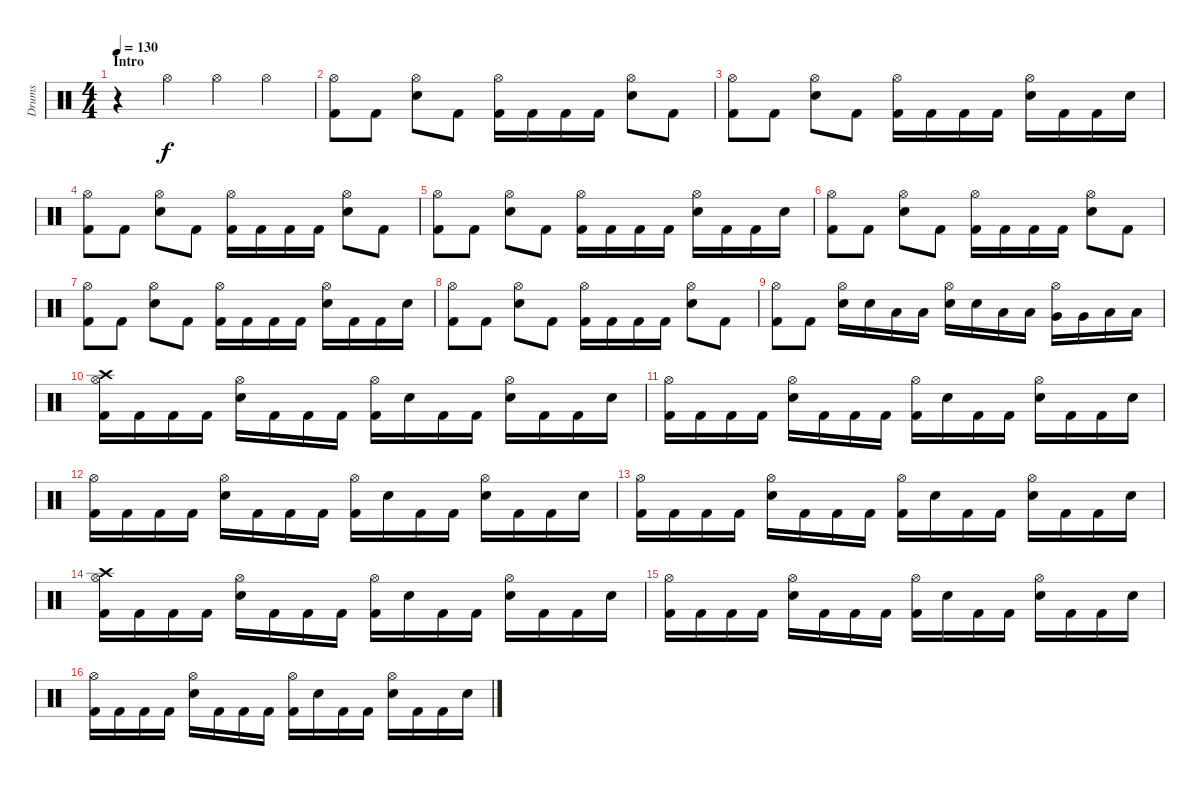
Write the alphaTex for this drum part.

\track ("Drums" "Drums") {instrument percussion}
\staff {score}
\articulation defaults
\ts (4 4)
\section ("" "Intro")
\tempo 130
\clef neutral
\ks c
r.4{dy f} "Hi-Hat (open)".4 "Hi-Hat (open)".4 "Hi-Hat (open)".4 |
("Hi-Hat (open)" "Kick (hit) 2").8 "Kick (hit) 2".8 ("Hi-Hat (open)" "Electric Snare (hit)").8 "Kick (hit) 2".8 ("Hi-Hat (open)" "Kick (hit) 2").16 "Kick (hit) 2".16 "Kick (hit) 2".16 "Kick (hit) 2".16 ("Hi-Hat (open)" "Electric Snare (hit)").8 "Kick (hit) 2".8 |
("Hi-Hat (open)" "Kick (hit) 2").8 "Kick (hit) 2".8 ("Hi-Hat (open)" "Electric Snare (hit)").8 "Kick (hit) 2".8 ("Hi-Hat (open)" "Kick (hit) 2").16 "Kick (hit) 2".16 "Kick (hit) 2".16 "Kick (hit) 2".16 ("Hi-Hat (open)" "Electric Snare (hit)").16 "Kick (hit) 2".16 "Kick (hit) 2".16 "Electric Snare (hit)".16 |
("Hi-Hat (open)" "Kick (hit) 2").8 "Kick (hit) 2".8 ("Hi-Hat (open)" "Electric Snare (hit)").8 "Kick (hit) 2".8 ("Hi-Hat (open)" "Kick (hit) 2").16 "Kick (hit) 2".16 "Kick (hit) 2".16 "Kick (hit) 2".16 ("Hi-Hat (open)" "Electric Snare (hit)").8 "Kick (hit) 2".8 |
("Hi-Hat (open)" "Kick (hit) 2").8 "Kick (hit) 2".8 ("Hi-Hat (open)" "Electric Snare (hit)").8 "Kick (hit) 2".8 ("Hi-Hat (open)" "Kick (hit) 2").16 "Kick (hit) 2".16 "Kick (hit) 2".16 "Kick (hit) 2".16 ("Hi-Hat (open)" "Electric Snare (hit)").16 "Kick (hit) 2".16 "Kick (hit) 2".16 "Electric Snare (hit)".16 |
("Hi-Hat (open)" "Kick (hit) 2").8 "Kick (hit) 2".8 ("Hi-Hat (open)" "Electric Snare (hit)").8 "Kick (hit) 2".8 ("Hi-Hat (open)" "Kick (hit) 2").16 "Kick (hit) 2".16 "Kick (hit) 2".16 "Kick (hit) 2".16 ("Hi-Hat (open)" "Electric Snare (hit)").8 "Kick (hit) 2".8 |
("Hi-Hat (open)" "Kick (hit) 2").8 "Kick (hit) 2".8 ("Hi-Hat (open)" "Electric Snare (hit)").8 "Kick (hit) 2".8 ("Hi-Hat (open)" "Kick (hit) 2").16 "Kick (hit) 2".16 "Kick (hit) 2".16 "Kick (hit) 2".16 ("Hi-Hat (open)" "Electric Snare (hit)").16 "Kick (hit) 2".16 "Kick (hit) 2".16 "Electric Snare (hit)".16 |
("Hi-Hat (open)" "Kick (hit) 2").8 "Kick (hit) 2".8 ("Hi-Hat (open)" "Electric Snare (hit)").8 "Kick (hit) 2".8 ("Hi-Hat (open)" "Kick (hit) 2").16 "Kick (hit) 2".16 "Kick (hit) 2".16 "Kick (hit) 2".16 ("Hi-Hat (open)" "Electric Snare (hit)").8 "Kick (hit) 2".8 |
("Hi-Hat (open)" "Kick (hit) 2").8 "Kick (hit) 2".8 ("Hi-Hat (open)" "Electric Snare (hit)").16 "Electric Snare (hit)".16 "Low Tom (hit)".16 "Low Tom (hit)".16 ("Hi-Hat (open)" "Electric Snare (hit)").16 "Electric Snare (hit)".16 "Low Tom (hit)".16 "Low Tom (hit)".16 ("Hi-Hat (open)" "Very Low Tom (hit)").16 "Very Low Tom (hit)".16 "Low Floor Tom (hit)".16 "Low Floor Tom (hit)".16 |
("Crash high (hit)" "Hi-Hat (open)" "Kick (hit) 2").16 "Kick (hit) 2".16 "Kick (hit) 2".16 "Kick (hit) 2".16 ("Hi-Hat (open)" "Electric Snare (hit)").16 "Kick (hit) 2".16 "Kick (hit) 2".16 "Kick (hit) 2".16 ("Hi-Hat (open)" "Kick (hit) 2").16 "Electric Snare (hit)".16 "Kick (hit) 2".16 "Kick (hit) 2".16 ("Hi-Hat (open)" "Electric Snare (hit)").16 "Kick (hit) 2".16 "Kick (hit) 2".16 "Electric Snare (hit)".16 |
("Hi-Hat (open)" "Kick (hit) 2").16 "Kick (hit) 2".16 "Kick (hit) 2".16 "Kick (hit) 2".16 ("Hi-Hat (open)" "Electric Snare (hit)").16 "Kick (hit) 2".16 "Kick (hit) 2".16 "Kick (hit) 2".16 ("Hi-Hat (open)" "Kick (hit) 2").16 "Electric Snare (hit)".16 "Kick (hit) 2".16 "Kick (hit) 2".16 ("Hi-Hat (open)" "Electric Snare (hit)").16 "Kick (hit) 2".16 "Kick (hit) 2".16 "Electric Snare (hit)".16 |
("Hi-Hat (open)" "Kick (hit) 2").16 "Kick (hit) 2".16 "Kick (hit) 2".16 "Kick (hit) 2".16 ("Hi-Hat (open)" "Electric Snare (hit)").16 "Kick (hit) 2".16 "Kick (hit) 2".16 "Kick (hit) 2".16 ("Hi-Hat (open)" "Kick (hit) 2").16 "Electric Snare (hit)".16 "Kick (hit) 2".16 "Kick (hit) 2".16 ("Hi-Hat (open)" "Electric Snare (hit)").16 "Kick (hit) 2".16 "Kick (hit) 2".16 "Electric Snare (hit)".16 |
("Hi-Hat (open)" "Kick (hit) 2").16 "Kick (hit) 2".16 "Kick (hit) 2".16 "Kick (hit) 2".16 ("Hi-Hat (open)" "Electric Snare (hit)").16 "Kick (hit) 2".16 "Kick (hit) 2".16 "Kick (hit) 2".16 ("Hi-Hat (open)" "Kick (hit) 2").16 "Electric Snare (hit)".16 "Kick (hit) 2".16 "Kick (hit) 2".16 ("Hi-Hat (open)" "Electric Snare (hit)").16 "Kick (hit) 2".16 "Kick (hit) 2".16 "Electric Snare (hit)".16 |
("Crash high (hit)" "Hi-Hat (open)" "Kick (hit) 2").16 "Kick (hit) 2".16 "Kick (hit) 2".16 "Kick (hit) 2".16 ("Hi-Hat (open)" "Electric Snare (hit)").16 "Kick (hit) 2".16 "Kick (hit) 2".16 "Kick (hit) 2".16 ("Hi-Hat (open)" "Kick (hit) 2").16 "Electric Snare (hit)".16 "Kick (hit) 2".16 "Kick (hit) 2".16 ("Hi-Hat (open)" "Electric Snare (hit)").16 "Kick (hit) 2".16 "Kick (hit) 2".16 "Electric Snare (hit)".16 |
("Hi-Hat (open)" "Kick (hit) 2").16 "Kick (hit) 2".16 "Kick (hit) 2".16 "Kick (hit) 2".16 ("Hi-Hat (open)" "Electric Snare (hit)").16 "Kick (hit) 2".16 "Kick (hit) 2".16 "Kick (hit) 2".16 ("Hi-Hat (open)" "Kick (hit) 2").16 "Electric Snare (hit)".16 "Kick (hit) 2".16 "Kick (hit) 2".16 ("Hi-Hat (open)" "Electric Snare (hit)").16 "Kick (hit) 2".16 "Kick (hit) 2".16 "Electric Snare (hit)".16 |
("Hi-Hat (open)" "Kick (hit) 2").16 "Kick (hit) 2".16 "Kick (hit) 2".16 "Kick (hit) 2".16 ("Hi-Hat (open)" "Electric Snare (hit)").16 "Kick (hit) 2".16 "Kick (hit) 2".16 "Kick (hit) 2".16 ("Hi-Hat (open)" "Kick (hit) 2").16 "Electric Snare (hit)".16 "Kick (hit) 2".16 "Kick (hit) 2".16 ("Hi-Hat (open)" "Electric Snare (hit)").16 "Kick (hit) 2".16 "Kick (hit) 2".16 "Electric Snare (hit)".16
